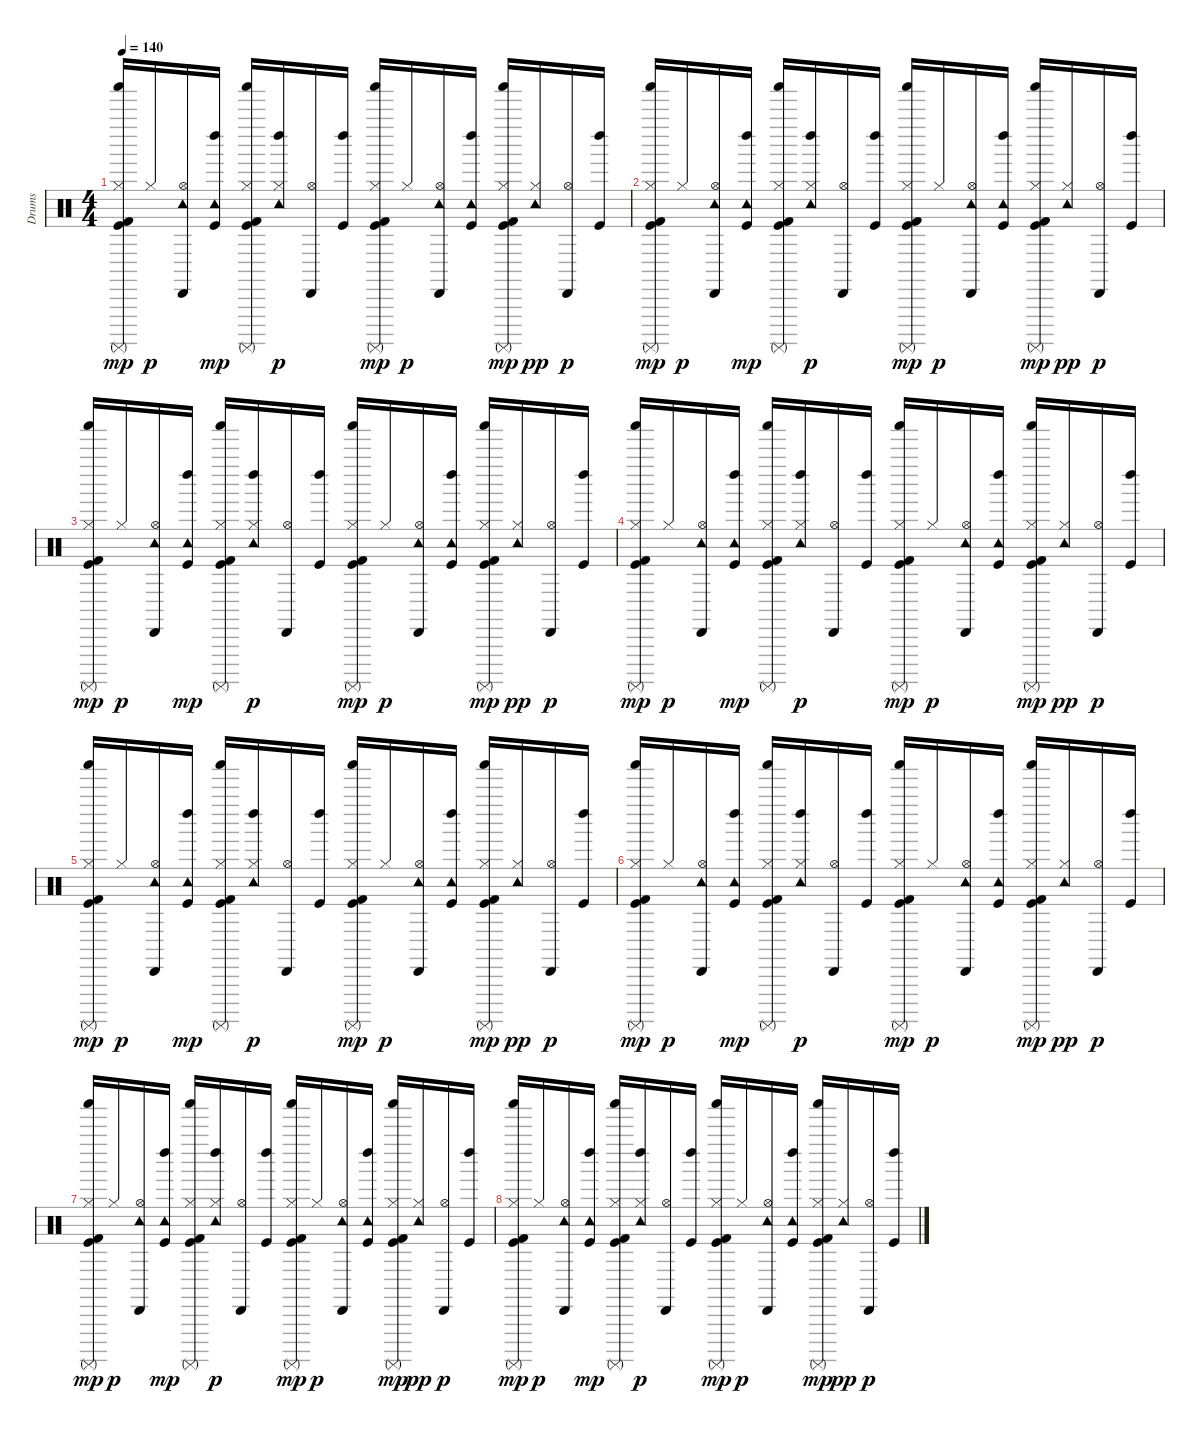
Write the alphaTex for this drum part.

\track ("Drums" "Drums") {instrument percussion}
\staff {score}
\articulation defaults
\ts (4 4)
\tempo 140
\clef neutral
\ks c
("Kick (hit)" "Kick (hit) 2" "Hi-Hat (closed)" "Shaker (hit)" "Surdo (mute)").16{dy mp} "Hi-Hat (closed)".16{dy p} ("Hi-Hat (open)" "Tambourine (hit)" "Cabasa (hit)").16 ("Kick (hit)" "Tambourine (hit)" "Left Maraca (hit)").16{dy mp} ("Kick (hit)" "Kick (hit) 2" "Hi-Hat (closed)" "Shaker (hit)" "Surdo (mute)").16 ("Hi-Hat (closed)" "Tambourine (hit)" "Left Maraca (hit)").16{dy p} ("Hi-Hat (open)" "Cabasa (hit)").16 ("Kick (hit)" "Left Maraca (hit)").16 ("Kick (hit)" "Kick (hit) 2" "Hi-Hat (closed)" "Shaker (hit)" "Surdo (mute)").16{dy mp} "Hi-Hat (closed)".16{dy p} ("Hi-Hat (open)" "Tambourine (hit)" "Cabasa (hit)").16 ("Kick (hit)" "Tambourine (hit)" "Left Maraca (hit)").16 ("Kick (hit)" "Kick (hit) 2" "Hi-Hat (closed)" "Shaker (hit)" "Surdo (mute)").16{dy mp} ("Hi-Hat (closed)" "Tambourine (hit)").16{dy pp} ("Hi-Hat (open)" "Cabasa (hit)").16{dy p} ("Kick (hit)" "Left Maraca (hit)").16 |
("Kick (hit)" "Kick (hit) 2" "Hi-Hat (closed)" "Shaker (hit)" "Surdo (mute)").16{dy mp} "Hi-Hat (closed)".16{dy p} ("Hi-Hat (open)" "Tambourine (hit)" "Cabasa (hit)").16 ("Kick (hit)" "Tambourine (hit)" "Left Maraca (hit)").16{dy mp} ("Kick (hit)" "Kick (hit) 2" "Hi-Hat (closed)" "Shaker (hit)" "Surdo (mute)").16 ("Hi-Hat (closed)" "Tambourine (hit)" "Left Maraca (hit)").16{dy p} ("Hi-Hat (open)" "Cabasa (hit)").16 ("Kick (hit)" "Left Maraca (hit)").16 ("Kick (hit)" "Kick (hit) 2" "Hi-Hat (closed)" "Shaker (hit)" "Surdo (mute)").16{dy mp} "Hi-Hat (closed)".16{dy p} ("Hi-Hat (open)" "Tambourine (hit)" "Cabasa (hit)").16 ("Kick (hit)" "Tambourine (hit)" "Left Maraca (hit)").16 ("Kick (hit)" "Kick (hit) 2" "Hi-Hat (closed)" "Shaker (hit)" "Surdo (mute)").16{dy mp} ("Hi-Hat (closed)" "Tambourine (hit)").16{dy pp} ("Hi-Hat (open)" "Cabasa (hit)").16{dy p} ("Kick (hit)" "Left Maraca (hit)").16 |
("Kick (hit)" "Kick (hit) 2" "Hi-Hat (closed)" "Shaker (hit)" "Surdo (mute)").16{dy mp} "Hi-Hat (closed)".16{dy p} ("Hi-Hat (open)" "Tambourine (hit)" "Cabasa (hit)").16 ("Kick (hit)" "Tambourine (hit)" "Left Maraca (hit)").16{dy mp} ("Kick (hit)" "Kick (hit) 2" "Hi-Hat (closed)" "Shaker (hit)" "Surdo (mute)").16 ("Hi-Hat (closed)" "Tambourine (hit)" "Left Maraca (hit)").16{dy p} ("Hi-Hat (open)" "Cabasa (hit)").16 ("Kick (hit)" "Left Maraca (hit)").16 ("Kick (hit)" "Kick (hit) 2" "Hi-Hat (closed)" "Shaker (hit)" "Surdo (mute)").16{dy mp} "Hi-Hat (closed)".16{dy p} ("Hi-Hat (open)" "Tambourine (hit)" "Cabasa (hit)").16 ("Kick (hit)" "Tambourine (hit)" "Left Maraca (hit)").16 ("Kick (hit)" "Kick (hit) 2" "Hi-Hat (closed)" "Shaker (hit)" "Surdo (mute)").16{dy mp} ("Hi-Hat (closed)" "Tambourine (hit)").16{dy pp} ("Hi-Hat (open)" "Cabasa (hit)").16{dy p} ("Kick (hit)" "Left Maraca (hit)").16 |
("Kick (hit)" "Kick (hit) 2" "Hi-Hat (closed)" "Shaker (hit)" "Surdo (mute)").16{dy mp} "Hi-Hat (closed)".16{dy p} ("Hi-Hat (open)" "Tambourine (hit)" "Cabasa (hit)").16 ("Kick (hit)" "Tambourine (hit)" "Left Maraca (hit)").16{dy mp} ("Kick (hit)" "Kick (hit) 2" "Hi-Hat (closed)" "Shaker (hit)" "Surdo (mute)").16 ("Hi-Hat (closed)" "Tambourine (hit)" "Left Maraca (hit)").16{dy p} ("Hi-Hat (open)" "Cabasa (hit)").16 ("Kick (hit)" "Left Maraca (hit)").16 ("Kick (hit)" "Kick (hit) 2" "Hi-Hat (closed)" "Shaker (hit)" "Surdo (mute)").16{dy mp} "Hi-Hat (closed)".16{dy p} ("Hi-Hat (open)" "Tambourine (hit)" "Cabasa (hit)").16 ("Kick (hit)" "Tambourine (hit)" "Left Maraca (hit)").16 ("Kick (hit)" "Kick (hit) 2" "Hi-Hat (closed)" "Shaker (hit)" "Surdo (mute)").16{dy mp} ("Hi-Hat (closed)" "Tambourine (hit)").16{dy pp} ("Hi-Hat (open)" "Cabasa (hit)").16{dy p} ("Kick (hit)" "Left Maraca (hit)").16 |
("Kick (hit)" "Kick (hit) 2" "Hi-Hat (closed)" "Shaker (hit)" "Surdo (mute)").16{dy mp} "Hi-Hat (closed)".16{dy p} ("Hi-Hat (open)" "Tambourine (hit)" "Cabasa (hit)").16 ("Kick (hit)" "Tambourine (hit)" "Left Maraca (hit)").16{dy mp} ("Kick (hit)" "Kick (hit) 2" "Hi-Hat (closed)" "Shaker (hit)" "Surdo (mute)").16 ("Hi-Hat (closed)" "Tambourine (hit)" "Left Maraca (hit)").16{dy p} ("Hi-Hat (open)" "Cabasa (hit)").16 ("Kick (hit)" "Left Maraca (hit)").16 ("Kick (hit)" "Kick (hit) 2" "Hi-Hat (closed)" "Shaker (hit)" "Surdo (mute)").16{dy mp} "Hi-Hat (closed)".16{dy p} ("Hi-Hat (open)" "Tambourine (hit)" "Cabasa (hit)").16 ("Kick (hit)" "Tambourine (hit)" "Left Maraca (hit)").16 ("Kick (hit)" "Kick (hit) 2" "Hi-Hat (closed)" "Shaker (hit)" "Surdo (mute)").16{dy mp} ("Hi-Hat (closed)" "Tambourine (hit)").16{dy pp} ("Hi-Hat (open)" "Cabasa (hit)").16{dy p} ("Kick (hit)" "Left Maraca (hit)").16 |
("Kick (hit)" "Kick (hit) 2" "Hi-Hat (closed)" "Shaker (hit)" "Surdo (mute)").16{dy mp} "Hi-Hat (closed)".16{dy p} ("Hi-Hat (open)" "Tambourine (hit)" "Cabasa (hit)").16 ("Kick (hit)" "Tambourine (hit)" "Left Maraca (hit)").16{dy mp} ("Kick (hit)" "Kick (hit) 2" "Hi-Hat (closed)" "Shaker (hit)" "Surdo (mute)").16 ("Hi-Hat (closed)" "Tambourine (hit)" "Left Maraca (hit)").16{dy p} ("Hi-Hat (open)" "Cabasa (hit)").16 ("Kick (hit)" "Left Maraca (hit)").16 ("Kick (hit)" "Kick (hit) 2" "Hi-Hat (closed)" "Shaker (hit)" "Surdo (mute)").16{dy mp} "Hi-Hat (closed)".16{dy p} ("Hi-Hat (open)" "Tambourine (hit)" "Cabasa (hit)").16 ("Kick (hit)" "Tambourine (hit)" "Left Maraca (hit)").16 ("Kick (hit)" "Kick (hit) 2" "Hi-Hat (closed)" "Shaker (hit)" "Surdo (mute)").16{dy mp} ("Hi-Hat (closed)" "Tambourine (hit)").16{dy pp} ("Hi-Hat (open)" "Cabasa (hit)").16{dy p} ("Kick (hit)" "Left Maraca (hit)").16 |
("Kick (hit)" "Kick (hit) 2" "Hi-Hat (closed)" "Shaker (hit)" "Surdo (mute)").16{dy mp} "Hi-Hat (closed)".16{dy p} ("Hi-Hat (open)" "Tambourine (hit)" "Cabasa (hit)").16 ("Kick (hit)" "Tambourine (hit)" "Left Maraca (hit)").16{dy mp} ("Kick (hit)" "Kick (hit) 2" "Hi-Hat (closed)" "Shaker (hit)" "Surdo (mute)").16 ("Hi-Hat (closed)" "Tambourine (hit)" "Left Maraca (hit)").16{dy p} ("Hi-Hat (open)" "Cabasa (hit)").16 ("Kick (hit)" "Left Maraca (hit)").16 ("Kick (hit)" "Kick (hit) 2" "Hi-Hat (closed)" "Shaker (hit)" "Surdo (mute)").16{dy mp} "Hi-Hat (closed)".16{dy p} ("Hi-Hat (open)" "Tambourine (hit)" "Cabasa (hit)").16 ("Kick (hit)" "Tambourine (hit)" "Left Maraca (hit)").16 ("Kick (hit)" "Kick (hit) 2" "Hi-Hat (closed)" "Shaker (hit)" "Surdo (mute)").16{dy mp} ("Hi-Hat (closed)" "Tambourine (hit)").16{dy pp} ("Hi-Hat (open)" "Cabasa (hit)").16{dy p} ("Kick (hit)" "Left Maraca (hit)").16 |
("Kick (hit)" "Kick (hit) 2" "Hi-Hat (closed)" "Shaker (hit)" "Surdo (mute)").16{dy mp} "Hi-Hat (closed)".16{dy p} ("Hi-Hat (open)" "Tambourine (hit)" "Cabasa (hit)").16 ("Kick (hit)" "Tambourine (hit)" "Left Maraca (hit)").16{dy mp} ("Kick (hit)" "Kick (hit) 2" "Hi-Hat (closed)" "Shaker (hit)" "Surdo (mute)").16 ("Hi-Hat (closed)" "Tambourine (hit)" "Left Maraca (hit)").16{dy p} ("Hi-Hat (open)" "Cabasa (hit)").16 ("Kick (hit)" "Left Maraca (hit)").16 ("Kick (hit)" "Kick (hit) 2" "Hi-Hat (closed)" "Shaker (hit)" "Surdo (mute)").16{dy mp} "Hi-Hat (closed)".16{dy p} ("Hi-Hat (open)" "Tambourine (hit)" "Cabasa (hit)").16 ("Kick (hit)" "Tambourine (hit)" "Left Maraca (hit)").16 ("Kick (hit)" "Kick (hit) 2" "Hi-Hat (closed)" "Shaker (hit)" "Surdo (mute)").16{dy mp} ("Hi-Hat (closed)" "Tambourine (hit)").16{dy pp} ("Hi-Hat (open)" "Cabasa (hit)").16{dy p} ("Kick (hit)" "Left Maraca (hit)").16
